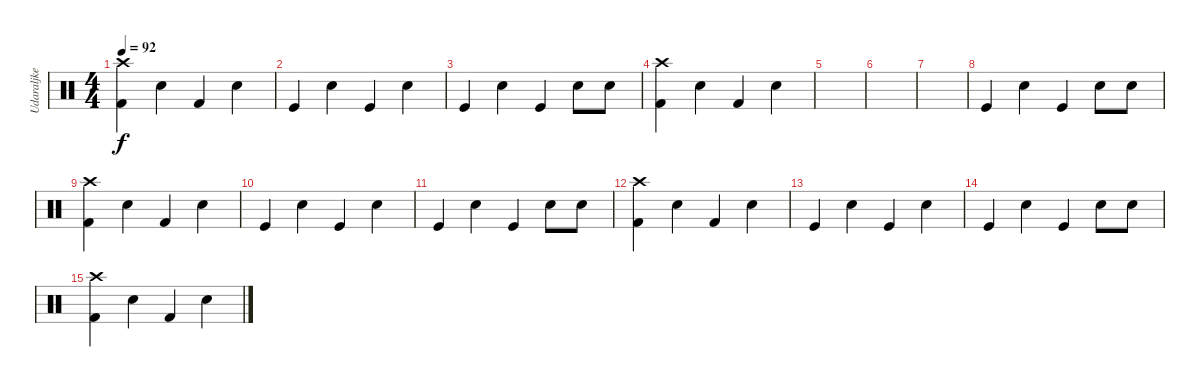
\track ("Udaraljke" "Udaraljke") {instrument percussion}
\staff {score}
\articulation defaults
\ts (4 4)
\tempo 92
\clef neutral
\ks c
("Crash high (hit)" "Kick (hit) 2").4{dy f} "Electric Snare (hit)".4 "Kick (hit) 2".4 "Electric Snare (hit)".4 |
"Kick (hit)".4 "Electric Snare (hit)".4 "Kick (hit)".4 "Electric Snare (hit)".4 |
"Kick (hit)".4 "Electric Snare (hit)".4 "Kick (hit)".4 "Electric Snare (hit)".8 "Snare (hit) 2".8 |
("Crash high (hit)" "Kick (hit) 2").4 "Electric Snare (hit)".4 "Kick (hit) 2".4 "Electric Snare (hit)".4 |
|
|
|
"Kick (hit)".4 "Electric Snare (hit)".4 "Kick (hit)".4 "Electric Snare (hit)".8 "Snare (hit) 2".8 |
("Crash high (hit)" "Kick (hit) 2").4 "Electric Snare (hit)".4 "Kick (hit) 2".4 "Electric Snare (hit)".4 |
"Kick (hit)".4 "Electric Snare (hit)".4 "Kick (hit)".4 "Electric Snare (hit)".4 |
"Kick (hit)".4 "Electric Snare (hit)".4 "Kick (hit)".4 "Electric Snare (hit)".8 "Snare (hit) 2".8 |
("Crash high (hit)" "Kick (hit) 2").4 "Electric Snare (hit)".4 "Kick (hit) 2".4 "Electric Snare (hit)".4 |
"Kick (hit)".4 "Electric Snare (hit)".4 "Kick (hit)".4 "Electric Snare (hit)".4 |
"Kick (hit)".4 "Electric Snare (hit)".4 "Kick (hit)".4 "Electric Snare (hit)".8 "Snare (hit) 2".8 |
("Crash high (hit)" "Kick (hit) 2").4 "Electric Snare (hit)".4 "Kick (hit) 2".4 "Electric Snare (hit)".4
